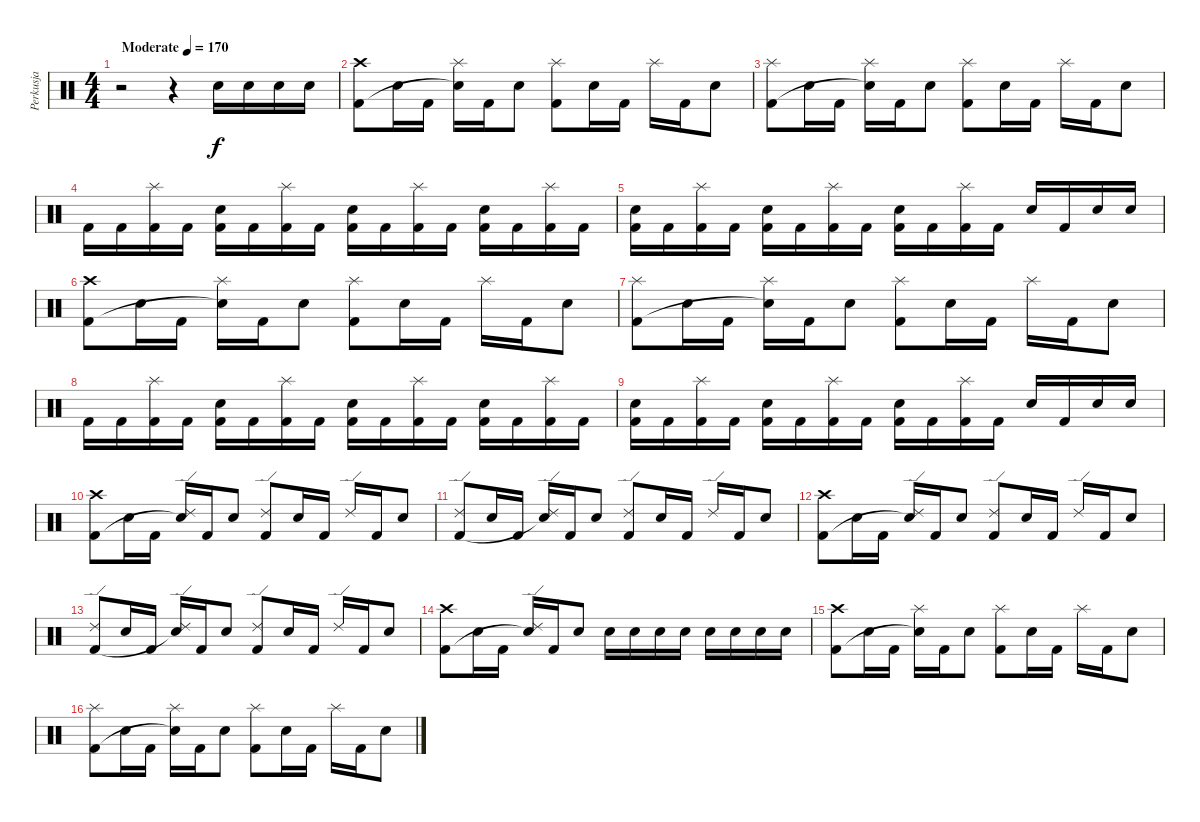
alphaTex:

\track ("Perkusja" "Perkusja") {instrument percussion}
\staff {score}
\articulation defaults
\ts (4 4)
\tempo (170 "Moderate")
\clef neutral
\ks c
r.2{dy f} r.4 "Snare (hit) 2".16 "Snare (hit) 2".16 "Snare (hit) 2".16 "Snare (hit) 2".16 |
("Crash high (hit)" "Kick (hit) 2").8 "Snare (hit) 2".16 "Kick (hit) 2".16 ("Splash (hit)" "Snare (hit)"{t}).16 "Kick (hit) 2".16 "Snare (hit) 2".8 ("Splash (hit)" "Kick (hit) 2").8 "Snare (hit) 2".16 "Kick (hit) 2".16 "Splash (hit)".16 "Kick (hit) 2".16 "Snare (hit) 2".8 |
("Splash (hit)" "Kick (hit) 2").8 "Snare (hit) 2".16 "Kick (hit) 2".16 ("Splash (hit)" "Snare (hit)"{t}).16 "Kick (hit) 2".16 "Snare (hit) 2".8 ("Splash (hit)" "Kick (hit) 2").8 "Snare (hit) 2".16 "Kick (hit) 2".16 "Splash (hit)".16 "Kick (hit) 2".16 "Snare (hit) 2".8 |
"Kick (hit) 2".16 "Kick (hit) 2".16 ("Splash (hit)" "Kick (hit) 2").16 "Kick (hit) 2".16 ("Snare (hit) 2" "Kick (hit) 2").16 "Kick (hit) 2".16 ("Splash (hit)" "Kick (hit) 2").16 "Kick (hit) 2".16 ("Snare (hit) 2" "Kick (hit) 2").16 "Kick (hit) 2".16 ("Splash (hit)" "Kick (hit) 2").16 "Kick (hit) 2".16 ("Snare (hit) 2" "Kick (hit) 2").16 "Kick (hit) 2".16 ("Splash (hit)" "Kick (hit) 2").16 "Kick (hit) 2".16 |
("Snare (hit) 2" "Kick (hit) 2").16 "Kick (hit) 2".16 ("Splash (hit)" "Kick (hit) 2").16 "Kick (hit) 2".16 ("Snare (hit) 2" "Kick (hit) 2").16 "Kick (hit) 2".16 ("Splash (hit)" "Kick (hit) 2").16 "Kick (hit) 2".16 ("Snare (hit) 2" "Kick (hit) 2").16 "Kick (hit) 2".16 ("Splash (hit)" "Kick (hit) 2").16 "Kick (hit) 2".16 "Snare (hit) 2".16 "Kick (hit) 2".16 "Snare (hit) 2".16 "Snare (hit) 2".16 |
("Crash high (hit)" "Kick (hit) 2").8 "Snare (hit) 2".16 "Kick (hit) 2".16 ("Splash (hit)" "Snare (hit)"{t}).16 "Kick (hit) 2".16 "Snare (hit) 2".8 ("Splash (hit)" "Kick (hit) 2").8 "Snare (hit) 2".16 "Kick (hit) 2".16 "Splash (hit)".16 "Kick (hit) 2".16 "Snare (hit) 2".8 |
("Splash (hit)" "Kick (hit) 2").8 "Snare (hit) 2".16 "Kick (hit) 2".16 ("Splash (hit)" "Snare (hit)"{t}).16 "Kick (hit) 2".16 "Snare (hit) 2".8 ("Splash (hit)" "Kick (hit) 2").8 "Snare (hit) 2".16 "Kick (hit) 2".16 "Splash (hit)".16 "Kick (hit) 2".16 "Snare (hit) 2".8 |
"Kick (hit) 2".16 "Kick (hit) 2".16 ("Splash (hit)" "Kick (hit) 2").16 "Kick (hit) 2".16 ("Snare (hit) 2" "Kick (hit) 2").16 "Kick (hit) 2".16 ("Splash (hit)" "Kick (hit) 2").16 "Kick (hit) 2".16 ("Snare (hit) 2" "Kick (hit) 2").16 "Kick (hit) 2".16 ("Splash (hit)" "Kick (hit) 2").16 "Kick (hit) 2".16 ("Snare (hit) 2" "Kick (hit) 2").16 "Kick (hit) 2".16 ("Splash (hit)" "Kick (hit) 2").16 "Kick (hit) 2".16 |
("Snare (hit) 2" "Kick (hit) 2").16 "Kick (hit) 2".16 ("Splash (hit)" "Kick (hit) 2").16 "Kick (hit) 2".16 ("Snare (hit) 2" "Kick (hit) 2").16 "Kick (hit) 2".16 ("Splash (hit)" "Kick (hit) 2").16 "Kick (hit) 2".16 ("Snare (hit) 2" "Kick (hit) 2").16 "Kick (hit) 2".16 ("Splash (hit)" "Kick (hit) 2").16 "Kick (hit) 2".16 "Snare (hit) 2".16 "Kick (hit) 2".16 "Snare (hit) 2".16 "Snare (hit) 2".16 |
("Crash high (hit)" "Kick (hit) 2").8 "Snare (hit) 2".16 "Kick (hit) 2".16 ("Ride (edge) 2" "Snare (hit)"{t}).16 "Kick (hit) 2".16 "Snare (hit) 2".8 ("Ride (edge) 2" "Kick (hit) 2").8 "Snare (hit) 2".16 "Kick (hit) 2".16 "Ride (edge) 2".16 "Kick (hit) 2".16 "Snare (hit) 2".8 |
("Ride (edge) 2" "Kick (hit) 2").8 "Snare (hit) 2".16 "Kick (hit) 2".16 ("Ride (edge) 2" "Snare (hit)"{t}).16 "Kick (hit) 2".16 "Snare (hit) 2".8 ("Ride (edge) 2" "Kick (hit) 2").8 "Snare (hit) 2".16 "Kick (hit) 2".16 "Ride (edge) 2".16 "Kick (hit) 2".16 "Snare (hit) 2".8 |
("Crash high (hit)" "Kick (hit) 2").8 "Snare (hit) 2".16 "Kick (hit) 2".16 ("Ride (edge) 2" "Snare (hit)"{t}).16 "Kick (hit) 2".16 "Snare (hit) 2".8 ("Ride (edge) 2" "Kick (hit) 2").8 "Snare (hit) 2".16 "Kick (hit) 2".16 "Ride (edge) 2".16 "Kick (hit) 2".16 "Snare (hit) 2".8 |
("Ride (edge) 2" "Kick (hit) 2").8 "Snare (hit) 2".16 "Kick (hit) 2".16 ("Ride (edge) 2" "Snare (hit)"{t}).16 "Kick (hit) 2".16 "Snare (hit) 2".8 ("Ride (edge) 2" "Kick (hit) 2").8 "Snare (hit) 2".16 "Kick (hit) 2".16 "Ride (edge) 2".16 "Kick (hit) 2".16 "Snare (hit) 2".8 |
("Crash high (hit)" "Kick (hit) 2").8 "Snare (hit) 2".16 "Kick (hit) 2".16 ("Ride (edge) 2" "Snare (hit)"{t}).16 "Kick (hit) 2".16 "Snare (hit) 2".8 "Snare (hit) 2".16 "Snare (hit) 2".16 "Snare (hit) 2".16 "Snare (hit) 2".16 "Snare (hit) 2".16 "Snare (hit) 2".16 "Snare (hit) 2".16 "Snare (hit) 2".16 |
("Crash high (hit)" "Kick (hit) 2").8 "Snare (hit) 2".16 "Kick (hit) 2".16 ("Splash (hit)" "Snare (hit)"{t}).16 "Kick (hit) 2".16 "Snare (hit) 2".8 ("Splash (hit)" "Kick (hit) 2").8 "Snare (hit) 2".16 "Kick (hit) 2".16 "Splash (hit)".16 "Kick (hit) 2".16 "Snare (hit) 2".8 |
("Splash (hit)" "Kick (hit) 2").8 "Snare (hit) 2".16 "Kick (hit) 2".16 ("Splash (hit)" "Snare (hit)"{t}).16 "Kick (hit) 2".16 "Snare (hit) 2".8 ("Splash (hit)" "Kick (hit) 2").8 "Snare (hit) 2".16 "Kick (hit) 2".16 "Splash (hit)".16 "Kick (hit) 2".16 "Snare (hit) 2".8
